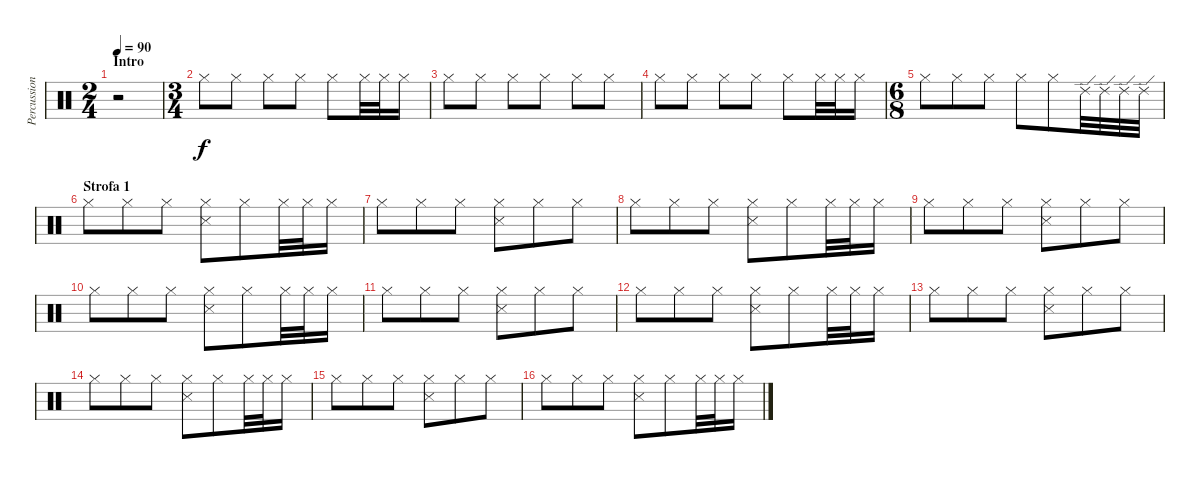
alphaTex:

\track ("Percussioni" "Percussion") {instrument percussion}
\staff {score}
\articulation defaults
\ts (2 4)
\section ("" "Intro")
\tempo 90
\clef neutral
\ks c
r.2{dy f} |
\ts (3 4)
"Hi-Hat (closed)".8 "Hi-Hat (closed)".8 "Hi-Hat (closed)".8 "Hi-Hat (closed)".8 "Hi-Hat (closed)".8 "Hi-Hat (closed)".32 "Hi-Hat (closed)".32 "Hi-Hat (closed)".16 |
"Hi-Hat (closed)".8 "Hi-Hat (closed)".8 "Hi-Hat (closed)".8 "Hi-Hat (closed)".8 "Hi-Hat (closed)".8 "Hi-Hat (closed)".8 |
"Hi-Hat (closed)".8 "Hi-Hat (closed)".8 "Hi-Hat (closed)".8 "Hi-Hat (closed)".8 "Hi-Hat (closed)".8 "Hi-Hat (closed)".32 "Hi-Hat (closed)".32 "Hi-Hat (closed)".16 |
\ts (6 8)
"Hi-Hat (closed)".8 "Hi-Hat (closed)".8 "Hi-Hat (closed)".8 "Hi-Hat (closed)".8 "Hi-Hat (closed)".8 "Ride (edge) 2".32 "Ride (edge) 2".32 "Ride (edge) 2".32 "Ride (edge) 2".32 |
\section ("" "Strofa 1")
"Hi-Hat (closed)".8 "Hi-Hat (closed)".8 "Hi-Hat (closed)".8 ("Hi-Hat (closed)" "Snare (side stick) 3").8 "Hi-Hat (closed)".8 "Hi-Hat (closed)".32 "Hi-Hat (closed)".32 "Hi-Hat (closed)".16 |
"Hi-Hat (closed)".8 "Hi-Hat (closed)".8 "Hi-Hat (closed)".8 ("Hi-Hat (closed)" "Snare (side stick) 3").8 "Hi-Hat (closed)".8 "Hi-Hat (closed)".8 |
"Hi-Hat (closed)".8 "Hi-Hat (closed)".8 "Hi-Hat (closed)".8 ("Hi-Hat (closed)" "Snare (side stick) 3").8 "Hi-Hat (closed)".8 "Hi-Hat (closed)".32 "Hi-Hat (closed)".32 "Hi-Hat (closed)".16 |
"Hi-Hat (closed)".8 "Hi-Hat (closed)".8 "Hi-Hat (closed)".8 ("Hi-Hat (closed)" "Snare (side stick) 3").8 "Hi-Hat (closed)".8 "Hi-Hat (closed)".8 |
"Hi-Hat (closed)".8 "Hi-Hat (closed)".8 "Hi-Hat (closed)".8 ("Hi-Hat (closed)" "Snare (side stick) 3").8 "Hi-Hat (closed)".8 "Hi-Hat (closed)".32 "Hi-Hat (closed)".32 "Hi-Hat (closed)".16 |
"Hi-Hat (closed)".8 "Hi-Hat (closed)".8 "Hi-Hat (closed)".8 ("Hi-Hat (closed)" "Snare (side stick) 3").8 "Hi-Hat (closed)".8 "Hi-Hat (closed)".8 |
"Hi-Hat (closed)".8 "Hi-Hat (closed)".8 "Hi-Hat (closed)".8 ("Hi-Hat (closed)" "Snare (side stick) 3").8 "Hi-Hat (closed)".8 "Hi-Hat (closed)".32 "Hi-Hat (closed)".32 "Hi-Hat (closed)".16 |
"Hi-Hat (closed)".8 "Hi-Hat (closed)".8 "Hi-Hat (closed)".8 ("Hi-Hat (closed)" "Snare (side stick) 3").8 "Hi-Hat (closed)".8 "Hi-Hat (closed)".8 |
"Hi-Hat (closed)".8 "Hi-Hat (closed)".8 "Hi-Hat (closed)".8 ("Hi-Hat (closed)" "Snare (side stick) 3").8 "Hi-Hat (closed)".8 "Hi-Hat (closed)".32 "Hi-Hat (closed)".32 "Hi-Hat (closed)".16 |
"Hi-Hat (closed)".8 "Hi-Hat (closed)".8 "Hi-Hat (closed)".8 ("Hi-Hat (closed)" "Snare (side stick) 3").8 "Hi-Hat (closed)".8 "Hi-Hat (closed)".8 |
"Hi-Hat (closed)".8 "Hi-Hat (closed)".8 "Hi-Hat (closed)".8 ("Hi-Hat (closed)" "Snare (side stick) 3").8 "Hi-Hat (closed)".8 "Hi-Hat (closed)".32 "Hi-Hat (closed)".32 "Hi-Hat (closed)".16
